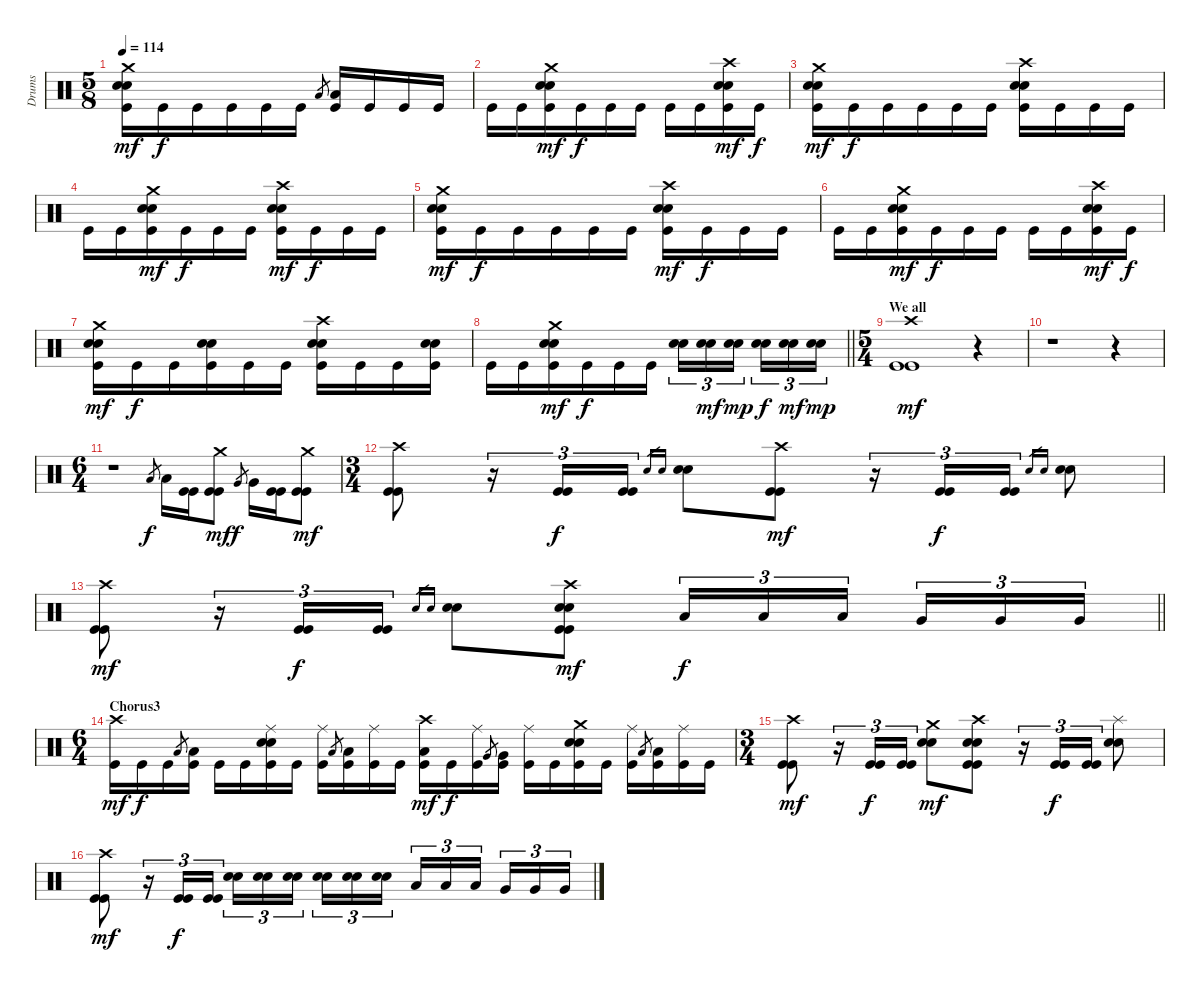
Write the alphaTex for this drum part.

\track ("Drums" "Drums") {instrument percussion}
\staff {score}
\articulation defaults
\ts (5 8)
\tempo 114
\clef neutral
\ks c
("Kick (hit)" "Snare (hit) 2" "Electric Snare (hit)" "Crash medium (hit)").16{dy mf} "Kick (hit)".16{dy f} "Kick (hit)".16 "Kick (hit)".16 "Kick (hit)".16 "Kick (hit)".16 "Low Tom (hit)".8{gr} ("Kick (hit)" "Low Tom (hit)").16 "Kick (hit)".16 "Kick (hit)".16 "Kick (hit)".16 |
"Kick (hit)".16 "Kick (hit)".16 ("Kick (hit)" "Snare (hit) 2" "Electric Snare (hit)" "Crash medium (hit)").16{dy mf} "Kick (hit)".16{dy f} "Kick (hit)".16 "Kick (hit)".16 "Kick (hit)".16 "Kick (hit)".16 ("Kick (hit)" "Snare (hit) 2" "Electric Snare (hit)" "Crash high (hit)").16{dy mf} "Kick (hit)".16{dy f} |
("Kick (hit)" "Snare (hit) 2" "Electric Snare (hit)" "Crash medium (hit)").16{dy mf} "Kick (hit)".16{dy f} "Kick (hit)".16 "Kick (hit)".16 "Kick (hit)".16 "Kick (hit)".16 ("Kick (hit)" "Snare (hit) 2" "Electric Snare (hit)" "Crash high (hit)").16 "Kick (hit)".16 "Kick (hit)".16 "Kick (hit)".16 |
"Kick (hit)".16 "Kick (hit)".16 ("Kick (hit)" "Snare (hit) 2" "Electric Snare (hit)" "Crash medium (hit)").16{dy mf} "Kick (hit)".16{dy f} "Kick (hit)".16 "Kick (hit)".16 ("Kick (hit)" "Snare (hit) 2" "Electric Snare (hit)" "Crash high (hit)").16{dy mf} "Kick (hit)".16{dy f} "Kick (hit)".16 "Kick (hit)".16 |
("Kick (hit)" "Snare (hit) 2" "Electric Snare (hit)" "Crash medium (hit)").16{dy mf} "Kick (hit)".16{dy f} "Kick (hit)".16 "Kick (hit)".16 "Kick (hit)".16 "Kick (hit)".16 ("Kick (hit)" "Snare (hit) 2" "Electric Snare (hit)" "Crash high (hit)").16{dy mf} "Kick (hit)".16{dy f} "Kick (hit)".16 "Kick (hit)".16 |
"Kick (hit)".16 "Kick (hit)".16 ("Kick (hit)" "Snare (hit) 2" "Electric Snare (hit)" "Crash medium (hit)").16{dy mf} "Kick (hit)".16{dy f} "Kick (hit)".16 "Kick (hit)".16 "Kick (hit)".16 "Kick (hit)".16 ("Kick (hit)" "Snare (hit) 2" "Electric Snare (hit)" "Crash high (hit)").16{dy mf} "Kick (hit)".16{dy f} |
("Kick (hit)" "Snare (hit) 2" "Electric Snare (hit)" "Crash medium (hit)").16{dy mf} "Kick (hit)".16{dy f} "Kick (hit)".16 ("Kick (hit)" "Snare (hit) 2" "Electric Snare (hit)").16 "Kick (hit)".16 "Kick (hit)".16 ("Kick (hit)" "Snare (hit) 2" "Electric Snare (hit)" "Crash high (hit)").16 "Kick (hit)".16 "Kick (hit)".16 ("Kick (hit)" "Snare (hit) 2" "Electric Snare (hit)").16 |
\barLineRight lightlight "Kick (hit)".16 "Kick (hit)".16
("Kick (hit)" "Snare (hit) 2" "Electric Snare (hit)" "Crash medium (hit)").16{dy mf} "Kick (hit)".16{dy f} "Kick (hit)".16 "Kick (hit)".16 ("Snare (hit) 2" "Electric Snare (hit)").16{tu (3 2)} ("Snare (hit) 2" "Electric Snare (hit)").16{tu (3 2) dy mf} ("Snare (hit) 2" "Electric Snare (hit)").16{tu (3 2) dy mp} ("Snare (hit) 2" "Electric Snare (hit)").16{tu (3 2) dy f} ("Snare (hit) 2" "Electric Snare (hit)").16{tu (3 2) dy mf} ("Snare (hit) 2" "Electric Snare (hit)").16{tu (3 2) dy mp} |
\ts (5 4)
\section ("" "We all")
("Kick (hit)" "Kick (hit)" "Crash high (hit)").1{dy mf} r.4 |
r.1 r.4 |
\ts (6 4)
r.1 "Low Tom (hit)".8{gr dy f} "Low Tom (hit)".16 ("Kick (hit)" "Kick (hit)").16 ("Kick (hit)" "Kick (hit)" "Crash medium (hit)").8{dy mf} "Very Low Tom (hit)".8{gr dy f} "Very Low Tom (hit)".16 ("Kick (hit)" "Kick (hit)").16 ("Kick (hit)" "Kick (hit)" "Crash medium (hit)").8{dy mf} |
\ts (3 4)
("Kick (hit)" "Kick (hit)" "Crash high (hit)").8 r.16{tu (3 2)} ("Kick (hit)" "Kick (hit)").16{tu (3 2) dy f} ("Kick (hit)" "Kick (hit)").16{tu (3 2)} "Snare (hit) 2".16{gr} "Electric Snare (hit)".16{gr} ("Snare (hit) 2" "Electric Snare (hit)").8 ("Kick (hit)" "Kick (hit)" "Crash high (hit)").8{dy mf} r.16{tu (3 2)} ("Kick (hit)" "Kick (hit)").16{tu (3 2) dy f} ("Kick (hit)" "Kick (hit)").16{tu (3 2)} "Snare (hit) 2".16{gr} "Electric Snare (hit)".16{gr} ("Snare (hit) 2" "Electric Snare (hit)").8 |
\barLineRight lightlight
("Kick (hit)" "Kick (hit)" "Crash high (hit)").8{dy mf} r.16{tu (3 2)} ("Kick (hit)" "Kick (hit)").16{tu (3 2) dy f} ("Kick (hit)" "Kick (hit)").16{tu (3 2)} "Snare (hit) 2".16{gr} "Electric Snare (hit)".16{gr} ("Snare (hit) 2" "Electric Snare (hit)").8 ("Kick (hit)" "Kick (hit)" "Snare (hit) 2" "Electric Snare (hit)" "Crash high (hit)").8{dy mf} "Low Tom (hit)".16{tu (3 2) dy f} "Low Tom (hit)".16{tu (3 2)} "Low Tom (hit)".16{tu (3 2)} "Very Low Tom (hit)".16{tu (3 2)} "Very Low Tom (hit)".16{tu (3 2)} "Very Low Tom (hit)".16{tu (3 2)} |
\ts (6 4)
\section ("" "Chorus3")
("Kick (hit)" "Crash high (hit)").16{dy mf} "Kick (hit)".16{dy f} "Kick (hit)".16 "Low Tom (hit)".8{gr} ("Kick (hit)" "Low Tom (hit)").16 "Kick (hit)".16 "Kick (hit)".16 ("Kick (hit)" "Snare (hit) 2" "Electric Snare (hit)" "Ride (middle)").16 "Kick (hit)".16 ("Kick (hit)" "Ride (middle)").16 "Low Tom (hit)".8{gr} ("Kick (hit)" "Low Tom (hit)").16 ("Kick (hit)" "Ride (middle)").16 "Kick (hit)".16 ("Kick (hit)" "Low Floor Tom (hit)" "Crash high (hit)").16{dy mf} "Kick (hit)".16{dy f} ("Kick (hit)" "Ride (middle)").16 "Very Low Tom (hit)".8{gr} ("Kick (hit)" "Very Low Tom (hit)").16 ("Kick (hit)" "Ride (middle)").16 "Kick (hit)".16 ("Kick (hit)" "Snare (hit) 2" "Electric Snare (hit)" "Crash medium (hit)").16 "Kick (hit)".16 ("Kick (hit)" "Ride (middle)").16 "Low Tom (hit)".8{gr} ("Kick (hit)" "Low Tom (hit)").16 ("Kick (hit)" "Ride (middle)").16 "Kick (hit)".16 |
\ts (3 4)
("Kick (hit)" "Kick (hit)" "Crash high (hit)").8{dy mf} r.16{tu (3 2)} ("Kick (hit)" "Kick (hit)").16{tu (3 2) dy f} ("Kick (hit)" "Kick (hit)").16{tu (3 2)} ("Snare (hit) 2" "Electric Snare (hit)" "Crash medium (hit)").8{dy mf} ("Kick (hit)" "Kick (hit)" "Snare (hit) 2" "Electric Snare (hit)" "Crash high (hit)").8 r.16{tu (3 2)} ("Kick (hit)" "Kick (hit)").16{tu (3 2) dy f} ("Kick (hit)" "Kick (hit)").16{tu (3 2)} ("Snare (hit) 2" "Electric Snare (hit)" "Splash (hit)").8 |
("Kick (hit)" "Kick (hit)" "Crash high (hit)").8{dy mf} r.16{tu (3 2)} ("Kick (hit)" "Kick (hit)").16{tu (3 2) dy f} ("Kick (hit)" "Kick (hit)").16{tu (3 2)} ("Snare (hit) 2" "Electric Snare (hit)").16{tu (3 2)} ("Snare (hit) 2" "Electric Snare (hit)").16{tu (3 2)} ("Snare (hit) 2" "Electric Snare (hit)").16{tu (3 2)} ("Snare (hit) 2" "Electric Snare (hit)").16{tu (3 2)} ("Snare (hit) 2" "Electric Snare (hit)").16{tu (3 2)} ("Snare (hit) 2" "Electric Snare (hit)").16{tu (3 2)} "Low Tom (hit)".16{tu (3 2)} "Low Tom (hit)".16{tu (3 2)} "Low Tom (hit)".16{tu (3 2)} "Very Low Tom (hit)".16{tu (3 2)} "Very Low Tom (hit)".16{tu (3 2)} "Very Low Tom (hit)".16{tu (3 2)}
